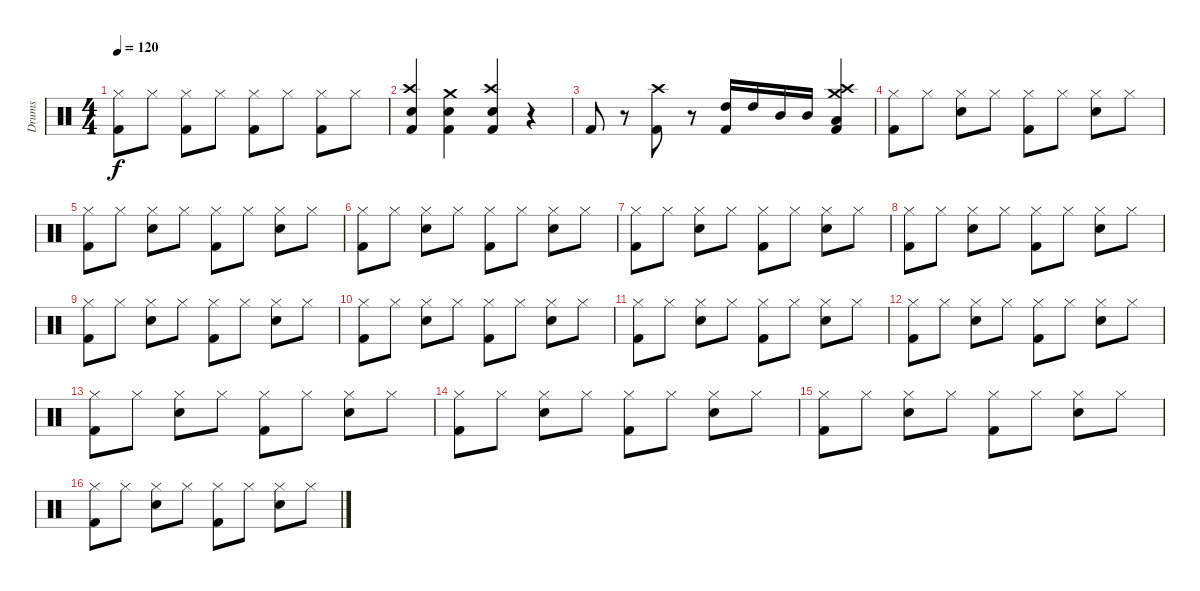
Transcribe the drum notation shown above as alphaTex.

\track ("Drums" "Drums") {instrument percussion}
\staff {score}
\articulation defaults
\ts (4 4)
\tempo 120
\clef neutral
\ks c
("Hi-Hat (closed)" "Kick (hit) 2").8{dy f} "Hi-Hat (closed)".8 ("Hi-Hat (closed)" "Kick (hit) 2").8 "Hi-Hat (closed)".8 ("Hi-Hat (closed)" "Kick (hit) 2").8 "Hi-Hat (closed)".8 ("Hi-Hat (closed)" "Kick (hit) 2").8 "Hi-Hat (closed)".8 |
("Crash high (hit)" "Electric Snare (hit)" "Kick (hit) 2").4 ("Crash medium (hit)" "Electric Snare (hit)" "Kick (hit) 2").4 ("Crash high (hit)" "Electric Snare (hit)" "Kick (hit) 2").4 r.4 |
"Kick (hit) 2".8 r.8 ("Crash high (hit)" "Kick (hit) 2").8 r.8 ("Kick (hit) 2" "High Tom (hit)").16 "High Tom (hit)".16 "Mid Tom (hit)".16 "Mid Tom (hit)".16 ("Crash high (hit)" "Kick (hit) 2" "Crash medium (hit)" "Low Tom (hit)").4 |
("Hi-Hat (closed)" "Kick (hit) 2").8 "Hi-Hat (closed)".8 ("Hi-Hat (closed)" "Snare (hit) 2").8 "Hi-Hat (closed)".8 ("Hi-Hat (closed)" "Kick (hit) 2").8 "Hi-Hat (closed)".8 ("Hi-Hat (closed)" "Snare (hit) 2").8 "Hi-Hat (closed)".8 |
("Hi-Hat (closed)" "Kick (hit) 2").8 "Hi-Hat (closed)".8 ("Hi-Hat (closed)" "Snare (hit) 2").8 "Hi-Hat (closed)".8 ("Hi-Hat (closed)" "Kick (hit) 2").8 "Hi-Hat (closed)".8 ("Hi-Hat (closed)" "Snare (hit) 2").8 "Hi-Hat (closed)".8 |
("Hi-Hat (closed)" "Kick (hit) 2").8 "Hi-Hat (closed)".8 ("Hi-Hat (closed)" "Snare (hit) 2").8 "Hi-Hat (closed)".8 ("Hi-Hat (closed)" "Kick (hit) 2").8 "Hi-Hat (closed)".8 ("Hi-Hat (closed)" "Snare (hit) 2").8 "Hi-Hat (closed)".8 |
("Hi-Hat (closed)" "Kick (hit) 2").8 "Hi-Hat (closed)".8 ("Hi-Hat (closed)" "Snare (hit) 2").8 "Hi-Hat (closed)".8 ("Hi-Hat (closed)" "Kick (hit) 2").8 "Hi-Hat (closed)".8 ("Hi-Hat (closed)" "Snare (hit) 2").8 "Hi-Hat (closed)".8 |
("Hi-Hat (closed)" "Kick (hit) 2").8 "Hi-Hat (closed)".8 ("Hi-Hat (closed)" "Snare (hit) 2").8 "Hi-Hat (closed)".8 ("Hi-Hat (closed)" "Kick (hit) 2").8 "Hi-Hat (closed)".8 ("Hi-Hat (closed)" "Snare (hit) 2").8 "Hi-Hat (closed)".8 |
("Hi-Hat (closed)" "Kick (hit) 2").8 "Hi-Hat (closed)".8 ("Hi-Hat (closed)" "Snare (hit) 2").8 "Hi-Hat (closed)".8 ("Hi-Hat (closed)" "Kick (hit) 2").8 "Hi-Hat (closed)".8 ("Hi-Hat (closed)" "Snare (hit) 2").8 "Hi-Hat (closed)".8 |
("Hi-Hat (closed)" "Kick (hit) 2").8 "Hi-Hat (closed)".8 ("Hi-Hat (closed)" "Snare (hit) 2").8 "Hi-Hat (closed)".8 ("Hi-Hat (closed)" "Kick (hit) 2").8 "Hi-Hat (closed)".8 ("Hi-Hat (closed)" "Snare (hit) 2").8 "Hi-Hat (closed)".8 |
("Hi-Hat (closed)" "Kick (hit) 2").8 "Hi-Hat (closed)".8 ("Hi-Hat (closed)" "Snare (hit) 2").8 "Hi-Hat (closed)".8 ("Hi-Hat (closed)" "Kick (hit) 2").8 "Hi-Hat (closed)".8 ("Hi-Hat (closed)" "Snare (hit) 2").8 "Hi-Hat (closed)".8 |
("Hi-Hat (closed)" "Kick (hit) 2").8 "Hi-Hat (closed)".8 ("Hi-Hat (closed)" "Snare (hit) 2").8 "Hi-Hat (closed)".8 ("Hi-Hat (closed)" "Kick (hit) 2").8 "Hi-Hat (closed)".8 ("Hi-Hat (closed)" "Snare (hit) 2").8 "Hi-Hat (closed)".8 |
("Hi-Hat (closed)" "Kick (hit) 2").8 "Hi-Hat (closed)".8 ("Hi-Hat (closed)" "Snare (hit) 2").8 "Hi-Hat (closed)".8 ("Hi-Hat (closed)" "Kick (hit) 2").8 "Hi-Hat (closed)".8 ("Hi-Hat (closed)" "Snare (hit) 2").8 "Hi-Hat (closed)".8 |
("Hi-Hat (closed)" "Kick (hit) 2").8 "Hi-Hat (closed)".8 ("Hi-Hat (closed)" "Snare (hit) 2").8 "Hi-Hat (closed)".8 ("Hi-Hat (closed)" "Kick (hit) 2").8 "Hi-Hat (closed)".8 ("Hi-Hat (closed)" "Snare (hit) 2").8 "Hi-Hat (closed)".8 |
("Hi-Hat (closed)" "Kick (hit) 2").8 "Hi-Hat (closed)".8 ("Hi-Hat (closed)" "Snare (hit) 2").8 "Hi-Hat (closed)".8 ("Hi-Hat (closed)" "Kick (hit) 2").8 "Hi-Hat (closed)".8 ("Hi-Hat (closed)" "Snare (hit) 2").8 "Hi-Hat (closed)".8 |
("Hi-Hat (closed)" "Kick (hit) 2").8 "Hi-Hat (closed)".8 ("Hi-Hat (closed)" "Snare (hit) 2").8 "Hi-Hat (closed)".8 ("Hi-Hat (closed)" "Kick (hit) 2").8 "Hi-Hat (closed)".8 ("Hi-Hat (closed)" "Snare (hit) 2").8 "Hi-Hat (closed)".8
